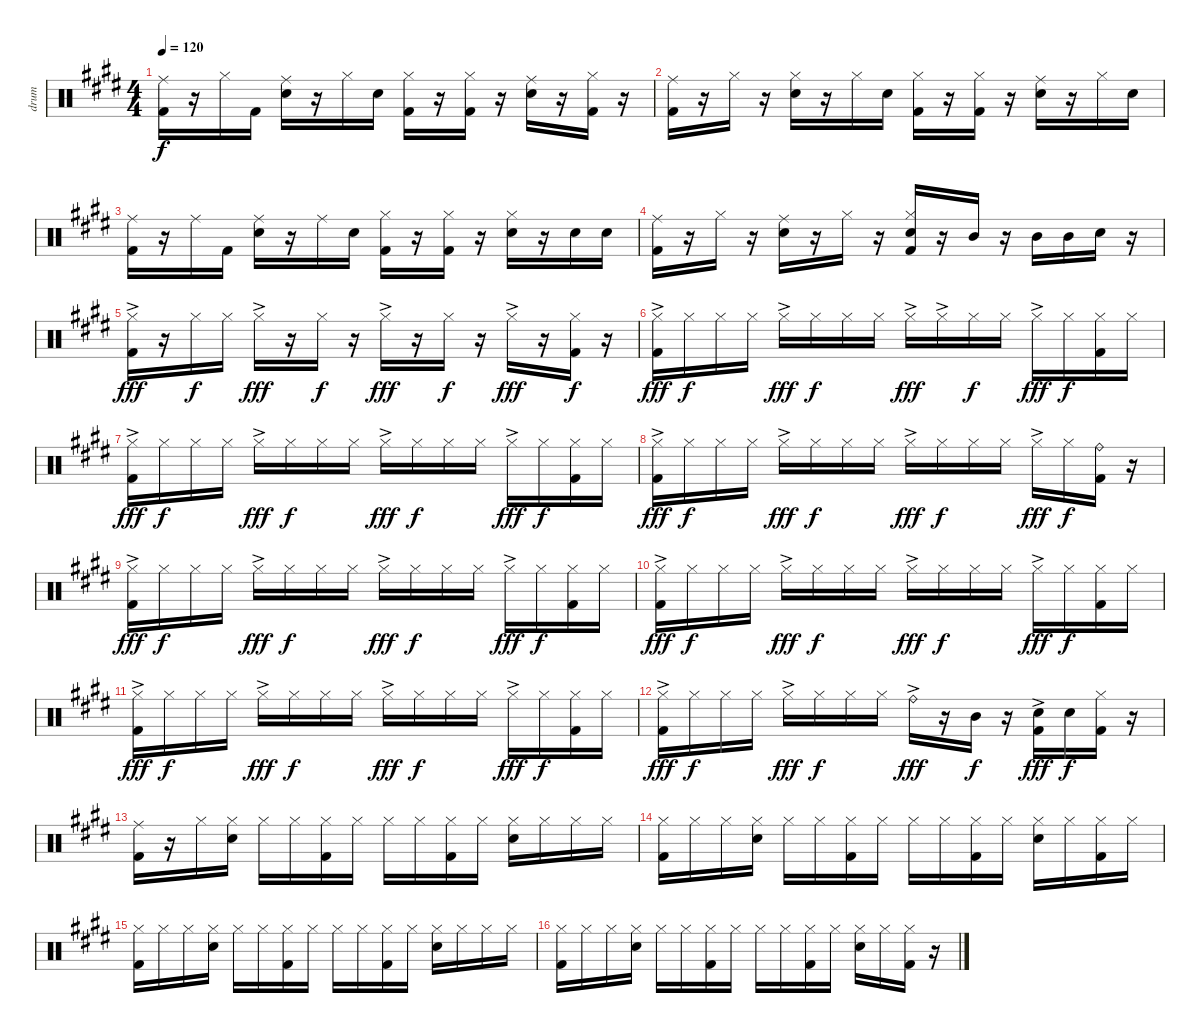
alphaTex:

\track ("drum" "drum") {instrument percussion}
\staff {score}
\articulation defaults
\ts (4 4)
\tempo 120
\clef neutral
\ks e
("Kick (hit) 2" "Ride (middle)").16{dy f} r.16 "Hi-Hat (closed)".16 "Kick (hit) 2".16 ("Snare (hit) 2" "Ride (middle)").16 r.16 "Hi-Hat (closed)".16 "Snare (hit) 2".16 ("Kick (hit) 2" "Hi-Hat (closed)").16 r.16 ("Kick (hit) 2" "Hi-Hat (closed)").16 r.16 ("Snare (hit) 2" "Ride (middle)").16 r.16 ("Kick (hit) 2" "Hi-Hat (closed)").16 r.16 |
("Kick (hit) 2" "Ride (middle)").16 r.16 "Hi-Hat (closed)".16 r.16 ("Snare (hit) 2" "Hi-Hat (closed)").16 r.16 "Hi-Hat (closed)".16 "Snare (hit) 2".16 ("Kick (hit) 2" "Hi-Hat (closed)").16 r.16 ("Kick (hit) 2" "Hi-Hat (closed)").16 r.16 ("Snare (hit) 2" "Ride (middle)").16 r.16 "Hi-Hat (closed)".16 "Snare (hit) 2".16 |
("Kick (hit) 2" "Ride (middle)").16 r.16 "Ride (middle)".16 "Kick (hit) 2".16 ("Snare (hit) 2" "Ride (middle)").16 r.16 "Ride (middle)".16 "Snare (hit) 2".16 ("Kick (hit) 2" "Hi-Hat (closed)").16 r.16 ("Kick (hit) 2" "Hi-Hat (closed)").16 r.16 ("Snare (hit) 2" "Hi-Hat (closed)").16 r.16 "Snare (hit) 2".16 "Snare (hit) 2".16 |
("Kick (hit) 2" "Ride (middle)").16 r.16 "Hi-Hat (closed)".16 r.16 ("Snare (hit) 2" "Ride (middle)").16 r.16 "Hi-Hat (closed)".16 r.16 ("Kick (hit) 2" "Snare (hit) 2" "Hi-Hat (closed)").16 r.16 "Mid Tom (hit)".16 r.16 "Mid Tom (hit)".16 "Mid Tom (hit)".16 "Snare (hit) 2".16 r.16 |
("Kick (hit) 2" "Hi-Hat (closed)"{ac}).16{dy fff} r.16 "Hi-Hat (closed)".16{dy f} "Hi-Hat (closed)".16 "Hi-Hat (closed)"{ac}.16{dy fff} r.16 "Hi-Hat (closed)".16{dy f} r.16 "Hi-Hat (closed)"{ac}.16{dy fff} r.16 "Hi-Hat (closed)".16{dy f} r.16 "Hi-Hat (closed)"{ac}.16{dy fff} r.16 ("Kick (hit) 2" "Hi-Hat (closed)").16{dy f} r.16 |
("Kick (hit) 2" "Hi-Hat (closed)"{ac}).16{dy fff} "Hi-Hat (closed)".16{dy f} "Hi-Hat (closed)".16 "Hi-Hat (closed)".16 "Hi-Hat (closed)"{ac}.16{dy fff} "Hi-Hat (closed)".16{dy f} "Hi-Hat (closed)".16 "Hi-Hat (closed)".16 "Hi-Hat (closed)"{ac}.16{dy fff} "Hi-Hat (closed)"{ac}.16 "Hi-Hat (closed)".16{dy f} "Hi-Hat (closed)".16 "Hi-Hat (closed)"{ac}.16{dy fff} "Hi-Hat (closed)".16{dy f} ("Kick (hit) 2" "Hi-Hat (closed)").16 "Hi-Hat (closed)".16 |
("Kick (hit) 2" "Hi-Hat (closed)"{ac}).16{dy fff} "Hi-Hat (closed)".16{dy f} "Hi-Hat (closed)".16 "Hi-Hat (closed)".16 "Hi-Hat (closed)"{ac}.16{dy fff} "Hi-Hat (closed)".16{dy f} "Hi-Hat (closed)".16 "Hi-Hat (closed)".16 "Hi-Hat (closed)"{ac}.16{dy fff} "Hi-Hat (closed)".16{dy f} "Hi-Hat (closed)".16 "Hi-Hat (closed)".16 "Hi-Hat (closed)"{ac}.16{dy fff} "Hi-Hat (closed)".16{dy f} ("Kick (hit) 2" "Hi-Hat (closed)").16 "Hi-Hat (closed)".16 |
("Kick (hit) 2" "Hi-Hat (closed)"{ac}).16{dy fff} "Hi-Hat (closed)".16{dy f} "Hi-Hat (closed)".16 "Hi-Hat (closed)".16 "Hi-Hat (closed)"{ac}.16{dy fff} "Hi-Hat (closed)".16{dy f} "Hi-Hat (closed)".16 "Hi-Hat (closed)".16 "Hi-Hat (closed)"{ac}.16{dy fff} "Hi-Hat (closed)".16{dy f} "Hi-Hat (closed)".16 "Hi-Hat (closed)".16 "Hi-Hat (closed)"{ac}.16{dy fff} "Hi-Hat (closed)".16{dy f} ("Kick (hit) 2" "Ride (bell)").16 r.16 |
("Kick (hit) 2" "Hi-Hat (closed)"{ac}).16{dy fff} "Hi-Hat (closed)".16{dy f} "Hi-Hat (closed)".16 "Hi-Hat (closed)".16 "Hi-Hat (closed)"{ac}.16{dy fff} "Hi-Hat (closed)".16{dy f} "Hi-Hat (closed)".16 "Hi-Hat (closed)".16 "Hi-Hat (closed)"{ac}.16{dy fff} "Hi-Hat (closed)".16{dy f} "Hi-Hat (closed)".16 "Hi-Hat (closed)".16 "Hi-Hat (closed)"{ac}.16{dy fff} "Hi-Hat (closed)".16{dy f} ("Kick (hit) 2" "Hi-Hat (closed)").16 "Hi-Hat (closed)".16 |
("Kick (hit) 2" "Hi-Hat (closed)"{ac}).16{dy fff} "Hi-Hat (closed)".16{dy f} "Hi-Hat (closed)".16 "Hi-Hat (closed)".16 "Hi-Hat (closed)"{ac}.16{dy fff} "Hi-Hat (closed)".16{dy f} "Hi-Hat (closed)".16 "Hi-Hat (closed)".16 "Hi-Hat (closed)"{ac}.16{dy fff} "Hi-Hat (closed)".16{dy f} "Hi-Hat (closed)".16 "Hi-Hat (closed)".16 "Hi-Hat (closed)"{ac}.16{dy fff} "Hi-Hat (closed)".16{dy f} ("Kick (hit) 2" "Hi-Hat (closed)").16 "Hi-Hat (closed)".16 |
("Kick (hit) 2" "Hi-Hat (closed)"{ac}).16{dy fff} "Hi-Hat (closed)".16{dy f} "Hi-Hat (closed)".16 "Hi-Hat (closed)".16 "Hi-Hat (closed)"{ac}.16{dy fff} "Hi-Hat (closed)".16{dy f} "Hi-Hat (closed)".16 "Hi-Hat (closed)".16 "Hi-Hat (closed)"{ac}.16{dy fff} "Hi-Hat (closed)".16{dy f} "Hi-Hat (closed)".16 "Hi-Hat (closed)".16 "Hi-Hat (closed)"{ac}.16{dy fff} "Hi-Hat (closed)".16{dy f} ("Kick (hit) 2" "Hi-Hat (closed)").16 "Hi-Hat (closed)".16 |
("Kick (hit) 2" "Hi-Hat (closed)"{ac}).16{dy fff} "Hi-Hat (closed)".16{dy f} "Hi-Hat (closed)".16 "Hi-Hat (closed)".16 "Hi-Hat (closed)"{ac}.16{dy fff} "Hi-Hat (closed)".16{dy f} "Hi-Hat (closed)".16 "Hi-Hat (closed)".16 "Ride (bell)"{ac}.16{dy fff} r.16 "Mid Tom (hit)".16{dy f} r.16 ("Kick (hit) 2" "Snare (hit) 2"{ac}).16{dy fff} "Snare (hit) 2".16{dy f} ("Kick (hit) 2" "Hi-Hat (closed)").16 r.16 |
("Kick (hit) 2" "Ride (middle)").16 r.16 "Hi-Hat (closed)".16 ("Snare (hit) 2" "Hi-Hat (closed)").16 "Hi-Hat (closed)".16 "Hi-Hat (closed)".16 ("Kick (hit) 2" "Hi-Hat (closed)").16 "Hi-Hat (closed)".16 "Hi-Hat (closed)".16 "Hi-Hat (closed)".16 ("Kick (hit) 2" "Hi-Hat (closed)").16 "Hi-Hat (closed)".16 ("Snare (hit) 2" "Hi-Hat (closed)").16 "Hi-Hat (closed)".16 "Hi-Hat (closed)".16 "Hi-Hat (closed)".16 |
("Kick (hit) 2" "Hi-Hat (closed)").16 "Hi-Hat (closed)".16 "Hi-Hat (closed)".16 ("Snare (hit) 2" "Hi-Hat (closed)").16 "Hi-Hat (closed)".16 "Hi-Hat (closed)".16 ("Kick (hit) 2" "Hi-Hat (closed)").16 "Hi-Hat (closed)".16 "Hi-Hat (closed)".16 "Hi-Hat (closed)".16 ("Kick (hit) 2" "Hi-Hat (closed)").16 "Hi-Hat (closed)".16 ("Snare (hit) 2" "Hi-Hat (closed)").16 "Hi-Hat (closed)".16 ("Kick (hit) 2" "Hi-Hat (closed)").16 "Hi-Hat (closed)".16 |
("Kick (hit) 2" "Hi-Hat (closed)").16 "Hi-Hat (closed)".16 "Hi-Hat (closed)".16 ("Snare (hit) 2" "Hi-Hat (closed)").16 "Hi-Hat (closed)".16 "Hi-Hat (closed)".16 ("Kick (hit) 2" "Hi-Hat (closed)").16 "Hi-Hat (closed)".16 "Hi-Hat (closed)".16 "Hi-Hat (closed)".16 ("Kick (hit) 2" "Hi-Hat (closed)").16 "Hi-Hat (closed)".16 ("Snare (hit) 2" "Hi-Hat (closed)").16 "Hi-Hat (closed)".16 "Hi-Hat (closed)".16 "Hi-Hat (closed)".16 |
("Kick (hit) 2" "Hi-Hat (closed)").16 "Hi-Hat (closed)".16 "Hi-Hat (closed)".16 ("Snare (hit) 2" "Hi-Hat (closed)").16 "Hi-Hat (closed)".16 "Hi-Hat (closed)".16 ("Kick (hit) 2" "Hi-Hat (closed)").16 "Hi-Hat (closed)".16 "Hi-Hat (closed)".16 "Hi-Hat (closed)".16 ("Kick (hit) 2" "Hi-Hat (closed)").16 "Hi-Hat (closed)".16 ("Snare (hit) 2" "Hi-Hat (closed)").16 "Hi-Hat (closed)".16 ("Kick (hit) 2" "Hi-Hat (closed)").16 r.16
